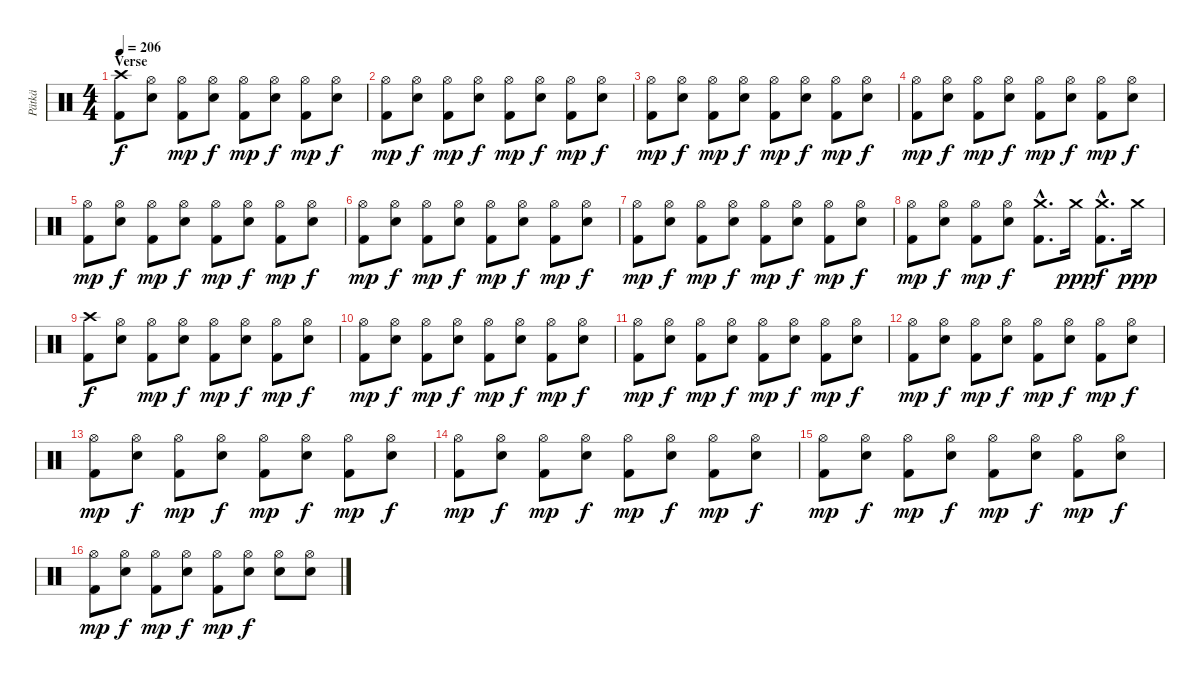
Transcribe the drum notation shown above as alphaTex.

\track ("Pätkä" "Pätkä") {instrument percussion}
\staff {score}
\articulation defaults
\ts (4 4)
\section ("" "Verse")
\tempo 206
\clef neutral
\ks c
("Crash high (hit)" "Kick (hit) 2").8{dy f} ("Hi-Hat (open)" "Electric Snare (hit)").8 ("Hi-Hat (open)" "Kick (hit) 2").8{dy mp} ("Hi-Hat (open)" "Electric Snare (hit)").8{dy f} ("Hi-Hat (open)" "Kick (hit) 2").8{dy mp} ("Hi-Hat (open)" "Electric Snare (hit)").8{dy f} ("Hi-Hat (open)" "Kick (hit) 2").8{dy mp} ("Hi-Hat (open)" "Electric Snare (hit)").8{dy f} |
("Hi-Hat (open)" "Kick (hit) 2").8{dy mp} ("Hi-Hat (open)" "Electric Snare (hit)").8{dy f} ("Hi-Hat (open)" "Kick (hit) 2").8{dy mp} ("Hi-Hat (open)" "Electric Snare (hit)").8{dy f} ("Hi-Hat (open)" "Kick (hit) 2").8{dy mp} ("Hi-Hat (open)" "Electric Snare (hit)").8{dy f} ("Hi-Hat (open)" "Kick (hit) 2").8{dy mp} ("Hi-Hat (open)" "Electric Snare (hit)").8{dy f} |
("Hi-Hat (open)" "Kick (hit) 2").8{dy mp} ("Hi-Hat (open)" "Electric Snare (hit)").8{dy f} ("Hi-Hat (open)" "Kick (hit) 2").8{dy mp} ("Hi-Hat (open)" "Electric Snare (hit)").8{dy f} ("Hi-Hat (open)" "Kick (hit) 2").8{dy mp} ("Hi-Hat (open)" "Electric Snare (hit)").8{dy f} ("Hi-Hat (open)" "Kick (hit) 2").8{dy mp} ("Hi-Hat (open)" "Electric Snare (hit)").8{dy f} |
("Hi-Hat (open)" "Kick (hit) 2").8{dy mp} ("Hi-Hat (open)" "Electric Snare (hit)").8{dy f} ("Hi-Hat (open)" "Kick (hit) 2").8{dy mp} ("Hi-Hat (open)" "Electric Snare (hit)").8{dy f} ("Hi-Hat (open)" "Kick (hit) 2").8{dy mp} ("Hi-Hat (open)" "Electric Snare (hit)").8{dy f} ("Hi-Hat (open)" "Kick (hit) 2").8{dy mp} ("Hi-Hat (open)" "Electric Snare (hit)").8{dy f} |
("Hi-Hat (open)" "Kick (hit) 2").8{dy mp} ("Hi-Hat (open)" "Electric Snare (hit)").8{dy f} ("Hi-Hat (open)" "Kick (hit) 2").8{dy mp} ("Hi-Hat (open)" "Electric Snare (hit)").8{dy f} ("Hi-Hat (open)" "Kick (hit) 2").8{dy mp} ("Hi-Hat (open)" "Electric Snare (hit)").8{dy f} ("Hi-Hat (open)" "Kick (hit) 2").8{dy mp} ("Hi-Hat (open)" "Electric Snare (hit)").8{dy f} |
("Hi-Hat (open)" "Kick (hit) 2").8{dy mp} ("Hi-Hat (open)" "Electric Snare (hit)").8{dy f} ("Hi-Hat (open)" "Kick (hit) 2").8{dy mp} ("Hi-Hat (open)" "Electric Snare (hit)").8{dy f} ("Hi-Hat (open)" "Kick (hit) 2").8{dy mp} ("Hi-Hat (open)" "Electric Snare (hit)").8{dy f} ("Hi-Hat (open)" "Kick (hit) 2").8{dy mp} ("Hi-Hat (open)" "Electric Snare (hit)").8{dy f} |
("Hi-Hat (open)" "Kick (hit) 2").8{dy mp} ("Hi-Hat (open)" "Electric Snare (hit)").8{dy f} ("Hi-Hat (open)" "Kick (hit) 2").8{dy mp} ("Hi-Hat (open)" "Electric Snare (hit)").8{dy f} ("Hi-Hat (open)" "Kick (hit) 2").8{dy mp} ("Hi-Hat (open)" "Electric Snare (hit)").8{dy f} ("Hi-Hat (open)" "Kick (hit) 2").8{dy mp} ("Hi-Hat (open)" "Electric Snare (hit)").8{dy f} |
("Hi-Hat (open)" "Kick (hit) 2").8{dy mp} ("Hi-Hat (open)" "Electric Snare (hit)").8{dy f} ("Hi-Hat (open)" "Kick (hit) 2").8{dy mp} ("Hi-Hat (open)" "Electric Snare (hit)").8{dy f} ("Crash medium (hit)"{hac} "Kick (hit) 2"{hac}).8{d} "Crash medium (hit)".16{dy ppp} ("Crash medium (hit)"{hac} "Kick (hit) 2"{hac}).8{d dy f} "Crash medium (hit)".16{dy ppp} |
("Crash high (hit)" "Kick (hit) 2").8{dy f} ("Hi-Hat (open)" "Electric Snare (hit)").8 ("Hi-Hat (open)" "Kick (hit) 2").8{dy mp} ("Hi-Hat (open)" "Electric Snare (hit)").8{dy f} ("Hi-Hat (open)" "Kick (hit) 2").8{dy mp} ("Hi-Hat (open)" "Electric Snare (hit)").8{dy f} ("Hi-Hat (open)" "Kick (hit) 2").8{dy mp} ("Hi-Hat (open)" "Electric Snare (hit)").8{dy f} |
("Hi-Hat (open)" "Kick (hit) 2").8{dy mp} ("Hi-Hat (open)" "Electric Snare (hit)").8{dy f} ("Hi-Hat (open)" "Kick (hit) 2").8{dy mp} ("Hi-Hat (open)" "Electric Snare (hit)").8{dy f} ("Hi-Hat (open)" "Kick (hit) 2").8{dy mp} ("Hi-Hat (open)" "Electric Snare (hit)").8{dy f} ("Hi-Hat (open)" "Kick (hit) 2").8{dy mp} ("Hi-Hat (open)" "Electric Snare (hit)").8{dy f} |
("Hi-Hat (open)" "Kick (hit) 2").8{dy mp} ("Hi-Hat (open)" "Electric Snare (hit)").8{dy f} ("Hi-Hat (open)" "Kick (hit) 2").8{dy mp} ("Hi-Hat (open)" "Electric Snare (hit)").8{dy f} ("Hi-Hat (open)" "Kick (hit) 2").8{dy mp} ("Hi-Hat (open)" "Electric Snare (hit)").8{dy f} ("Hi-Hat (open)" "Kick (hit) 2").8{dy mp} ("Hi-Hat (open)" "Electric Snare (hit)").8{dy f} |
("Hi-Hat (open)" "Kick (hit) 2").8{dy mp} ("Hi-Hat (open)" "Electric Snare (hit)").8{dy f} ("Hi-Hat (open)" "Kick (hit) 2").8{dy mp} ("Hi-Hat (open)" "Electric Snare (hit)").8{dy f} ("Hi-Hat (open)" "Kick (hit) 2").8{dy mp} ("Hi-Hat (open)" "Electric Snare (hit)").8{dy f} ("Hi-Hat (open)" "Kick (hit) 2").8{dy mp} ("Hi-Hat (open)" "Electric Snare (hit)").8{dy f} |
("Hi-Hat (open)" "Kick (hit) 2").8{dy mp} ("Hi-Hat (open)" "Electric Snare (hit)").8{dy f} ("Hi-Hat (open)" "Kick (hit) 2").8{dy mp} ("Hi-Hat (open)" "Electric Snare (hit)").8{dy f} ("Hi-Hat (open)" "Kick (hit) 2").8{dy mp} ("Hi-Hat (open)" "Electric Snare (hit)").8{dy f} ("Hi-Hat (open)" "Kick (hit) 2").8{dy mp} ("Hi-Hat (open)" "Electric Snare (hit)").8{dy f} |
("Hi-Hat (open)" "Kick (hit) 2").8{dy mp} ("Hi-Hat (open)" "Electric Snare (hit)").8{dy f} ("Hi-Hat (open)" "Kick (hit) 2").8{dy mp} ("Hi-Hat (open)" "Electric Snare (hit)").8{dy f} ("Hi-Hat (open)" "Kick (hit) 2").8{dy mp} ("Hi-Hat (open)" "Electric Snare (hit)").8{dy f} ("Hi-Hat (open)" "Kick (hit) 2").8{dy mp} ("Hi-Hat (open)" "Electric Snare (hit)").8{dy f} |
("Hi-Hat (open)" "Kick (hit) 2").8{dy mp} ("Hi-Hat (open)" "Electric Snare (hit)").8{dy f} ("Hi-Hat (open)" "Kick (hit) 2").8{dy mp} ("Hi-Hat (open)" "Electric Snare (hit)").8{dy f} ("Hi-Hat (open)" "Kick (hit) 2").8{dy mp} ("Hi-Hat (open)" "Electric Snare (hit)").8{dy f} ("Hi-Hat (open)" "Kick (hit) 2").8{dy mp} ("Hi-Hat (open)" "Electric Snare (hit)").8{dy f} |
("Hi-Hat (open)" "Kick (hit) 2").8{dy mp} ("Hi-Hat (open)" "Electric Snare (hit)").8{dy f} ("Hi-Hat (open)" "Kick (hit) 2").8{dy mp} ("Hi-Hat (open)" "Electric Snare (hit)").8{dy f} ("Hi-Hat (open)" "Kick (hit) 2").8{dy mp} ("Hi-Hat (open)" "Electric Snare (hit)").8{dy f} ("Hi-Hat (open)" "Electric Snare (hit)").8 ("Hi-Hat (open)" "Electric Snare (hit)").8
